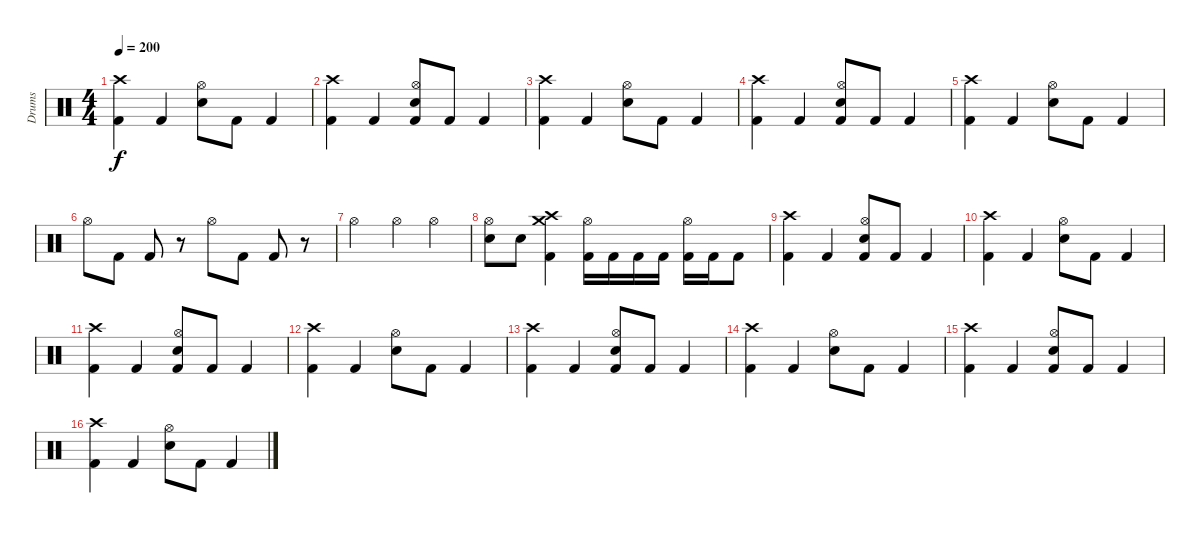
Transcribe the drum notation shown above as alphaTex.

\track ("Drums" "Drums") {instrument percussion}
\staff {score}
\articulation defaults
\ts (4 4)
\tempo 200
\clef neutral
\ks c
("Crash high (hit)" "Kick (hit) 2").4{dy f} "Kick (hit) 2".4 ("Hi-Hat (open)" "Snare (hit) 2").8 "Kick (hit) 2".8 "Kick (hit) 2".4 |
("Crash high (hit)" "Kick (hit) 2").4 "Kick (hit) 2".4 ("Hi-Hat (open)" "Snare (hit) 2" "Kick (hit) 2").8 "Kick (hit) 2".8 "Kick (hit) 2".4 |
("Crash high (hit)" "Kick (hit) 2").4 "Kick (hit) 2".4 ("Hi-Hat (open)" "Snare (hit) 2").8 "Kick (hit) 2".8 "Kick (hit) 2".4 |
("Crash high (hit)" "Kick (hit) 2").4 "Kick (hit) 2".4 ("Hi-Hat (open)" "Snare (hit) 2" "Kick (hit) 2").8 "Kick (hit) 2".8 "Kick (hit) 2".4 |
("Crash high (hit)" "Kick (hit) 2").4 "Kick (hit) 2".4 ("Hi-Hat (open)" "Snare (hit) 2").8 "Kick (hit) 2".8 "Kick (hit) 2".4 |
"Hi-Hat (open)".8 "Kick (hit) 2".8 "Kick (hit) 2".8 r.8 "Hi-Hat (open)".8 "Kick (hit) 2".8 "Kick (hit) 2".8 r.8 |
"Hi-Hat (open)".2 "Hi-Hat (open)".4 "Hi-Hat (open)".4 |
("Hi-Hat (open)" "Snare (hit) 2").8 "Snare (hit) 2".8 ("Crash medium (hit)" "Crash high (hit)" "Kick (hit) 2").4 ("Hi-Hat (open)" "Kick (hit) 2").16 "Kick (hit) 2".16 "Kick (hit) 2".16 "Kick (hit) 2".16 ("Hi-Hat (open)" "Kick (hit) 2").16 "Kick (hit) 2".16 "Kick (hit) 2".8 |
("Crash high (hit)" "Kick (hit) 2").4 "Kick (hit) 2".4 ("Hi-Hat (open)" "Snare (hit) 2" "Kick (hit) 2").8 "Kick (hit) 2".8 "Kick (hit) 2".4 |
("Crash high (hit)" "Kick (hit) 2").4 "Kick (hit) 2".4 ("Hi-Hat (open)" "Snare (hit) 2").8 "Kick (hit) 2".8 "Kick (hit) 2".4 |
("Crash high (hit)" "Kick (hit) 2").4 "Kick (hit) 2".4 ("Hi-Hat (open)" "Snare (hit) 2" "Kick (hit) 2").8 "Kick (hit) 2".8 "Kick (hit) 2".4 |
("Crash high (hit)" "Kick (hit) 2").4 "Kick (hit) 2".4 ("Hi-Hat (open)" "Snare (hit) 2").8 "Kick (hit) 2".8 "Kick (hit) 2".4 |
("Crash high (hit)" "Kick (hit) 2").4 "Kick (hit) 2".4 ("Hi-Hat (open)" "Snare (hit) 2" "Kick (hit) 2").8 "Kick (hit) 2".8 "Kick (hit) 2".4 |
("Crash high (hit)" "Kick (hit) 2").4 "Kick (hit) 2".4 ("Hi-Hat (open)" "Snare (hit) 2").8 "Kick (hit) 2".8 "Kick (hit) 2".4 |
("Crash high (hit)" "Kick (hit) 2").4 "Kick (hit) 2".4 ("Hi-Hat (open)" "Snare (hit) 2" "Kick (hit) 2").8 "Kick (hit) 2".8 "Kick (hit) 2".4 |
("Crash high (hit)" "Kick (hit) 2").4 "Kick (hit) 2".4 ("Hi-Hat (open)" "Snare (hit) 2").8 "Kick (hit) 2".8 "Kick (hit) 2".4
